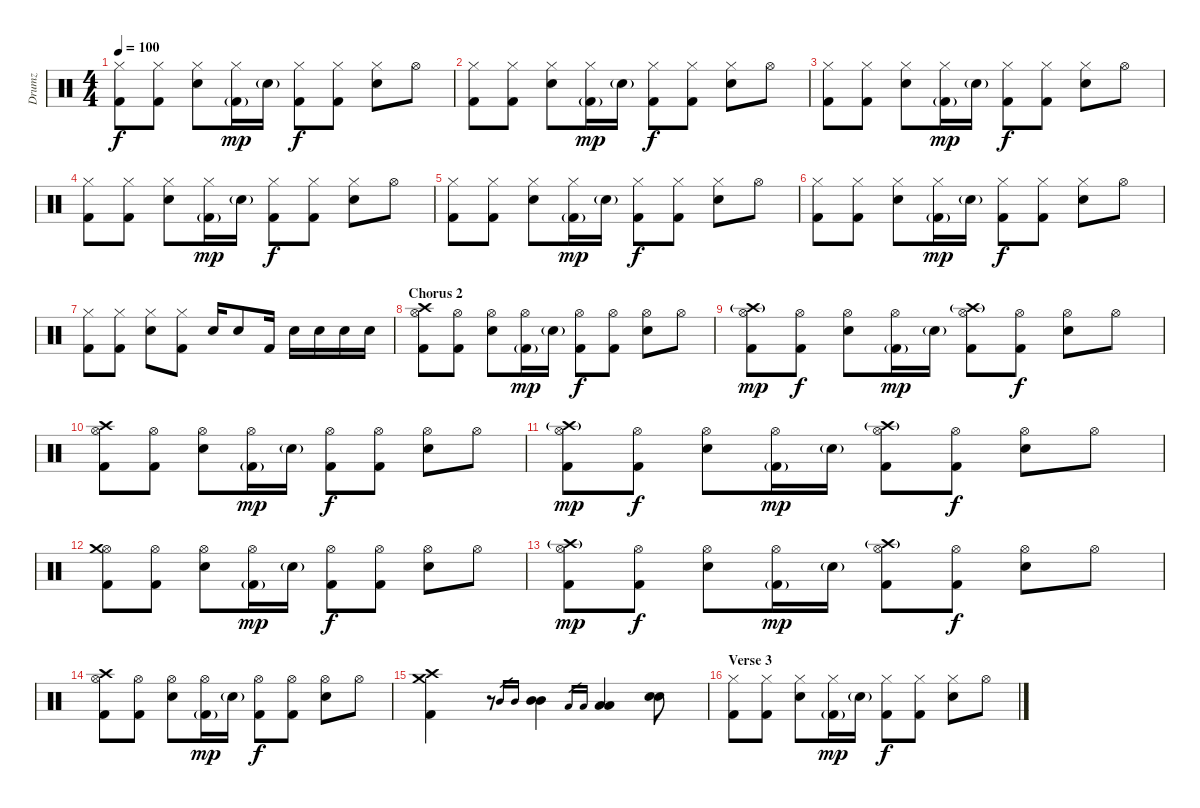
\track ("Drumz" "Drumz") {instrument percussion}
\staff {score}
\articulation defaults
\ts (4 4)
\tempo 100
\clef neutral
\ks c
("Hi-Hat (closed)" "Kick (hit) 2").8{dy f} ("Hi-Hat (closed)" "Kick (hit) 2").8 ("Hi-Hat (closed)" "Electric Snare (hit)").8 ("Hi-Hat (closed)" "Kick (hit) 2"{g}).16{dy mp} "Electric Snare (hit)"{g}.16 ("Hi-Hat (closed)" "Kick (hit) 2").8{dy f} ("Hi-Hat (closed)" "Kick (hit) 2").8 ("Hi-Hat (closed)" "Electric Snare (hit)").8 "Hi-Hat (open)".8 |
("Hi-Hat (closed)" "Kick (hit) 2").8 ("Hi-Hat (closed)" "Kick (hit) 2").8 ("Hi-Hat (closed)" "Electric Snare (hit)").8 ("Hi-Hat (closed)" "Kick (hit) 2"{g}).16{dy mp} "Electric Snare (hit)"{g}.16 ("Hi-Hat (closed)" "Kick (hit) 2").8{dy f} ("Hi-Hat (closed)" "Kick (hit) 2").8 ("Hi-Hat (closed)" "Electric Snare (hit)").8 "Hi-Hat (open)".8 |
("Hi-Hat (closed)" "Kick (hit) 2").8 ("Hi-Hat (closed)" "Kick (hit) 2").8 ("Hi-Hat (closed)" "Electric Snare (hit)").8 ("Hi-Hat (closed)" "Kick (hit) 2"{g}).16{dy mp} "Electric Snare (hit)"{g}.16 ("Hi-Hat (closed)" "Kick (hit) 2").8{dy f} ("Hi-Hat (closed)" "Kick (hit) 2").8 ("Hi-Hat (closed)" "Electric Snare (hit)").8 "Hi-Hat (open)".8 |
("Hi-Hat (closed)" "Kick (hit) 2").8 ("Hi-Hat (closed)" "Kick (hit) 2").8 ("Hi-Hat (closed)" "Electric Snare (hit)").8 ("Hi-Hat (closed)" "Kick (hit) 2"{g}).16{dy mp} "Electric Snare (hit)"{g}.16 ("Hi-Hat (closed)" "Kick (hit) 2").8{dy f} ("Hi-Hat (closed)" "Kick (hit) 2").8 ("Hi-Hat (closed)" "Electric Snare (hit)").8 "Hi-Hat (open)".8 |
("Hi-Hat (closed)" "Kick (hit) 2").8 ("Hi-Hat (closed)" "Kick (hit) 2").8 ("Hi-Hat (closed)" "Electric Snare (hit)").8 ("Hi-Hat (closed)" "Kick (hit) 2"{g}).16{dy mp} "Electric Snare (hit)"{g}.16 ("Hi-Hat (closed)" "Kick (hit) 2").8{dy f} ("Hi-Hat (closed)" "Kick (hit) 2").8 ("Hi-Hat (closed)" "Electric Snare (hit)").8 "Hi-Hat (open)".8 |
("Hi-Hat (closed)" "Kick (hit) 2").8 ("Hi-Hat (closed)" "Kick (hit) 2").8 ("Hi-Hat (closed)" "Electric Snare (hit)").8 ("Hi-Hat (closed)" "Kick (hit) 2"{g}).16{dy mp} "Electric Snare (hit)"{g}.16 ("Hi-Hat (closed)" "Kick (hit) 2").8{dy f} ("Hi-Hat (closed)" "Kick (hit) 2").8 ("Hi-Hat (closed)" "Electric Snare (hit)").8 "Hi-Hat (open)".8 |
("Hi-Hat (closed)" "Kick (hit) 2").8 ("Hi-Hat (closed)" "Kick (hit) 2").8 ("Hi-Hat (closed)" "Electric Snare (hit)").8 ("Hi-Hat (closed)" "Kick (hit) 2").8 "Electric Snare (hit)".16 "Electric Snare (hit)".8 "Kick (hit) 2".16 "Electric Snare (hit)".16 "Electric Snare (hit)".16 "Electric Snare (hit)".16 "Electric Snare (hit)".16 |
\section ("" "Chorus 2")
("Hi-Hat (open)" "Crash high (hit)" "Kick (hit) 2").8 ("Hi-Hat (open)" "Kick (hit) 2").8 ("Hi-Hat (open)" "Electric Snare (hit)").8 ("Hi-Hat (open)" "Kick (hit) 2"{g}).16{dy mp} "Electric Snare (hit)"{g}.16 ("Hi-Hat (open)" "Kick (hit) 2").8{dy f} ("Hi-Hat (open)" "Kick (hit) 2").8 ("Hi-Hat (open)" "Electric Snare (hit)").8 "Hi-Hat (open)".8 |
("Hi-Hat (open)" "Crash high (hit)"{g} "Kick (hit) 2").8{dy mp} ("Hi-Hat (open)" "Kick (hit) 2").8{dy f} ("Hi-Hat (open)" "Electric Snare (hit)").8 ("Hi-Hat (open)" "Kick (hit) 2"{g}).16{dy mp} "Electric Snare (hit)"{g}.16 ("Hi-Hat (open)" "Crash high (hit)"{g} "Kick (hit) 2").8 ("Hi-Hat (open)" "Kick (hit) 2").8{dy f} ("Hi-Hat (open)" "Electric Snare (hit)").8 "Hi-Hat (open)".8 |
("Hi-Hat (open)" "Crash high (hit)" "Kick (hit) 2").8 ("Hi-Hat (open)" "Kick (hit) 2").8 ("Hi-Hat (open)" "Electric Snare (hit)").8 ("Hi-Hat (open)" "Kick (hit) 2"{g}).16{dy mp} "Electric Snare (hit)"{g}.16 ("Hi-Hat (open)" "Kick (hit) 2").8{dy f} ("Hi-Hat (open)" "Kick (hit) 2").8 ("Hi-Hat (open)" "Electric Snare (hit)").8 "Hi-Hat (open)".8 |
("Hi-Hat (open)" "Crash high (hit)"{g} "Kick (hit) 2").8{dy mp} ("Hi-Hat (open)" "Kick (hit) 2").8{dy f} ("Hi-Hat (open)" "Electric Snare (hit)").8 ("Hi-Hat (open)" "Kick (hit) 2"{g}).16{dy mp} "Electric Snare (hit)"{g}.16 ("Hi-Hat (open)" "Crash high (hit)"{g} "Kick (hit) 2").8 ("Hi-Hat (open)" "Kick (hit) 2").8{dy f} ("Hi-Hat (open)" "Electric Snare (hit)").8 "Hi-Hat (open)".8 |
("Hi-Hat (open)" "Crash medium (hit)" "Kick (hit) 2").8 ("Hi-Hat (open)" "Kick (hit) 2").8 ("Hi-Hat (open)" "Electric Snare (hit)").8 ("Hi-Hat (open)" "Kick (hit) 2"{g}).16{dy mp} "Electric Snare (hit)"{g}.16 ("Hi-Hat (open)" "Kick (hit) 2").8{dy f} ("Hi-Hat (open)" "Kick (hit) 2").8 ("Hi-Hat (open)" "Electric Snare (hit)").8 "Hi-Hat (open)".8 |
("Hi-Hat (open)" "Crash high (hit)"{g} "Kick (hit) 2").8{dy mp} ("Hi-Hat (open)" "Kick (hit) 2").8{dy f} ("Hi-Hat (open)" "Electric Snare (hit)").8 ("Hi-Hat (open)" "Kick (hit) 2"{g}).16{dy mp} "Electric Snare (hit)"{g}.16 ("Hi-Hat (open)" "Crash high (hit)"{g} "Kick (hit) 2").8 ("Hi-Hat (open)" "Kick (hit) 2").8{dy f} ("Hi-Hat (open)" "Electric Snare (hit)").8 "Hi-Hat (open)".8 |
("Hi-Hat (open)" "Crash high (hit)" "Kick (hit) 2").8 ("Hi-Hat (open)" "Kick (hit) 2").8 ("Hi-Hat (open)" "Electric Snare (hit)").8 ("Hi-Hat (open)" "Kick (hit) 2"{g}).16{dy mp} "Electric Snare (hit)"{g}.16 ("Hi-Hat (open)" "Kick (hit) 2").8{dy f} ("Hi-Hat (open)" "Kick (hit) 2").8 ("Hi-Hat (open)" "Electric Snare (hit)").8 "Hi-Hat (open)".8 |
("Crash high (hit)" "Crash medium (hit)" "Kick (hit) 2").4 r.8 "Mid Tom (hit)".16{gr} "Mid Tom (hit)".16{gr} ("Mid Tom (hit)" "Mid Tom (hit)").4 "Low Tom (hit)".16{gr} "Low Tom (hit)".16{gr} ("Low Tom (hit)" "Low Tom (hit)").4 ("Electric Snare (hit)" "Electric Snare (hit)").8 |
\section ("" "Verse 3")
("Hi-Hat (closed)" "Kick (hit) 2").8 ("Hi-Hat (closed)" "Kick (hit) 2").8 ("Hi-Hat (closed)" "Electric Snare (hit)").8 ("Hi-Hat (closed)" "Kick (hit) 2"{g}).16{dy mp} "Electric Snare (hit)"{g}.16 ("Hi-Hat (closed)" "Kick (hit) 2").8{dy f} ("Hi-Hat (closed)" "Kick (hit) 2").8 ("Hi-Hat (closed)" "Electric Snare (hit)").8 "Hi-Hat (open)".8
